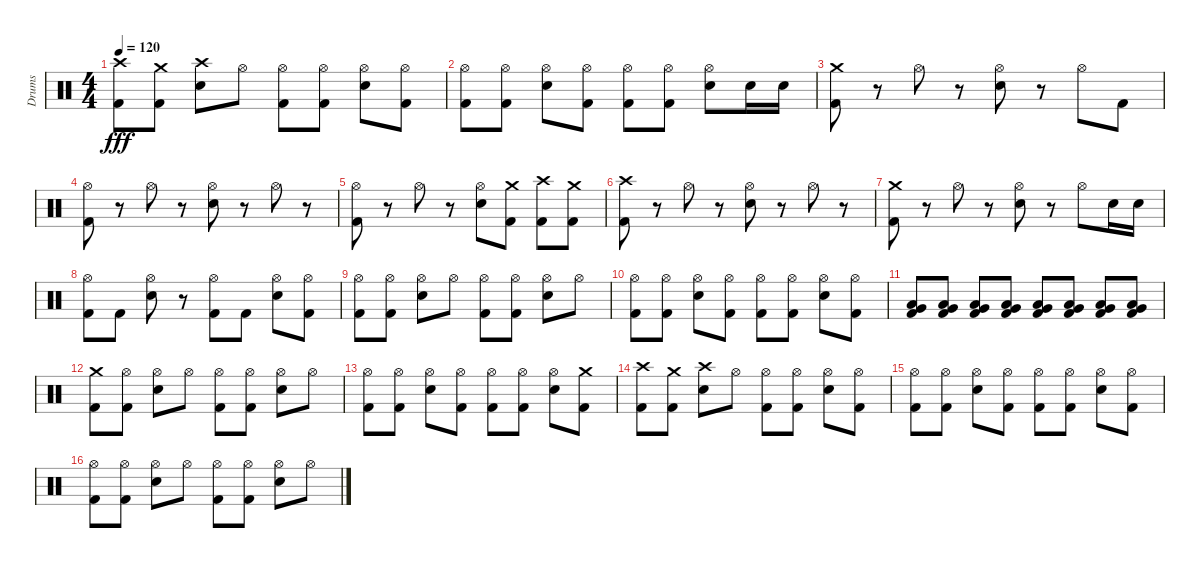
\track ("Drums" "Drums") {instrument percussion}
\staff {score}
\articulation defaults
\ts (4 4)
\tempo 120
\clef neutral
\ks c
("Kick (hit) 2" "Crash high (hit)").8{dy fff} ("Crash medium (hit)" "Kick (hit) 2").8 ("Crash high (hit)" "Electric Snare (hit)").8 "Hi-Hat (open)".8 ("Hi-Hat (open)" "Kick (hit) 2").8 ("Hi-Hat (open)" "Kick (hit) 2").8 ("Hi-Hat (open)" "Electric Snare (hit)").8 ("Hi-Hat (open)" "Kick (hit) 2").8 |
("Hi-Hat (open)" "Kick (hit) 2").8 ("Hi-Hat (open)" "Kick (hit) 2").8 ("Hi-Hat (open)" "Electric Snare (hit)").8 ("Hi-Hat (open)" "Kick (hit) 2").8 ("Hi-Hat (open)" "Kick (hit) 2").8 ("Hi-Hat (open)" "Kick (hit) 2").8 ("Hi-Hat (open)" "Electric Snare (hit)").8 "Electric Snare (hit)".16 "Electric Snare (hit)".16 |
("Crash medium (hit)" "Kick (hit) 2").8 r.8 "Hi-Hat (open)".8 r.8 ("Hi-Hat (open)" "Electric Snare (hit)").8 r.8 "Hi-Hat (open)".8 "Kick (hit) 2".8 |
("Hi-Hat (open)" "Kick (hit) 2").8 r.8 "Hi-Hat (open)".8 r.8 ("Hi-Hat (open)" "Electric Snare (hit)").8 r.8 "Hi-Hat (open)".8 r.8 |
("Hi-Hat (open)" "Kick (hit) 2").8 r.8 "Hi-Hat (open)".8 r.8 ("Hi-Hat (open)" "Electric Snare (hit)").8 ("Kick (hit) 2" "Crash medium (hit)").8 ("Kick (hit) 2" "Crash high (hit)").8 ("Kick (hit) 2" "Crash medium (hit)").8 |
("Kick (hit) 2" "Crash high (hit)").8 r.8 "Hi-Hat (open)".8 r.8 ("Hi-Hat (open)" "Electric Snare (hit)").8 r.8 "Hi-Hat (open)".8 r.8 |
("Kick (hit) 2" "Crash medium (hit)").8 r.8 "Hi-Hat (open)".8 r.8 ("Hi-Hat (open)" "Electric Snare (hit)").8 r.8 "Hi-Hat (open)".8 "Electric Snare (hit)".16 "Electric Snare (hit)".16 |
("Hi-Hat (open)" "Kick (hit) 2").8 "Kick (hit) 2".8 ("Hi-Hat (open)" "Electric Snare (hit)").8 r.8 ("Hi-Hat (open)" "Kick (hit) 2").8 "Kick (hit) 2".8 ("Hi-Hat (open)" "Electric Snare (hit)").8 ("Kick (hit) 2" "Hi-Hat (open)").8 |
("Hi-Hat (open)" "Kick (hit) 2").8 ("Hi-Hat (open)" "Kick (hit) 2").8 ("Hi-Hat (open)" "Electric Snare (hit)").8 "Hi-Hat (open)".8 ("Hi-Hat (open)" "Kick (hit) 2").8 ("Hi-Hat (open)" "Kick (hit) 2").8 ("Hi-Hat (open)" "Electric Snare (hit)").8 "Hi-Hat (open)".8 |
("Hi-Hat (open)" "Kick (hit) 2").8 ("Hi-Hat (open)" "Kick (hit) 2").8 ("Hi-Hat (open)" "Electric Snare (hit)").8 ("Hi-Hat (open)" "Kick (hit) 2").8 ("Hi-Hat (open)" "Kick (hit) 2").8 ("Hi-Hat (open)" "Kick (hit) 2").8 ("Hi-Hat (open)" "Electric Snare (hit)").8 ("Hi-Hat (open)" "Kick (hit) 2").8 |
("Low Tom (hit)" "Very Low Tom (hit)" "Kick (hit) 2").8 ("Kick (hit) 2" "Very Low Tom (hit)" "Low Tom (hit)").8 ("Kick (hit) 2" "Very Low Tom (hit)" "Low Tom (hit)").8 ("Kick (hit) 2" "Very Low Tom (hit)" "Low Tom (hit)").8 ("Kick (hit) 2" "Very Low Tom (hit)" "Low Tom (hit)").8 ("Kick (hit) 2" "Very Low Tom (hit)" "Low Tom (hit)").8 ("Kick (hit) 2" "Very Low Tom (hit)" "Low Tom (hit)").8 ("Kick (hit) 2" "Very Low Tom (hit)" "Low Tom (hit)").8 |
("Kick (hit) 2" "Crash medium (hit)").8 ("Hi-Hat (open)" "Kick (hit) 2").8 ("Hi-Hat (open)" "Electric Snare (hit)").8 "Hi-Hat (open)".8 ("Hi-Hat (open)" "Kick (hit) 2").8 ("Hi-Hat (open)" "Kick (hit) 2").8 ("Hi-Hat (open)" "Electric Snare (hit)").8 "Hi-Hat (open)".8 |
("Hi-Hat (open)" "Kick (hit) 2").8 ("Hi-Hat (open)" "Kick (hit) 2").8 ("Hi-Hat (open)" "Electric Snare (hit)").8 ("Kick (hit) 2" "Hi-Hat (open)").8 ("Hi-Hat (open)" "Kick (hit) 2").8 ("Hi-Hat (open)" "Kick (hit) 2").8 ("Hi-Hat (open)" "Electric Snare (hit)").8 ("Crash medium (hit)" "Kick (hit) 2").8 |
("Kick (hit) 2" "Crash high (hit)").8 ("Crash medium (hit)" "Kick (hit) 2").8 ("Crash high (hit)" "Electric Snare (hit)").8 "Hi-Hat (open)".8 ("Hi-Hat (open)" "Kick (hit) 2").8 ("Hi-Hat (open)" "Kick (hit) 2").8 ("Hi-Hat (open)" "Electric Snare (hit)").8 ("Hi-Hat (open)" "Kick (hit) 2").8 |
("Hi-Hat (open)" "Kick (hit) 2").8 ("Hi-Hat (open)" "Kick (hit) 2").8 ("Hi-Hat (open)" "Electric Snare (hit)").8 ("Hi-Hat (open)" "Kick (hit) 2").8 ("Hi-Hat (open)" "Kick (hit) 2").8 ("Hi-Hat (open)" "Kick (hit) 2").8 ("Hi-Hat (open)" "Electric Snare (hit)").8 ("Hi-Hat (open)" "Kick (hit) 2").8 |
("Kick (hit) 2" "Hi-Hat (open)").8 ("Hi-Hat (open)" "Kick (hit) 2").8 ("Hi-Hat (open)" "Electric Snare (hit)").8 "Hi-Hat (open)".8 ("Hi-Hat (open)" "Kick (hit) 2").8 ("Hi-Hat (open)" "Kick (hit) 2").8 ("Hi-Hat (open)" "Electric Snare (hit)").8 "Hi-Hat (open)".8
